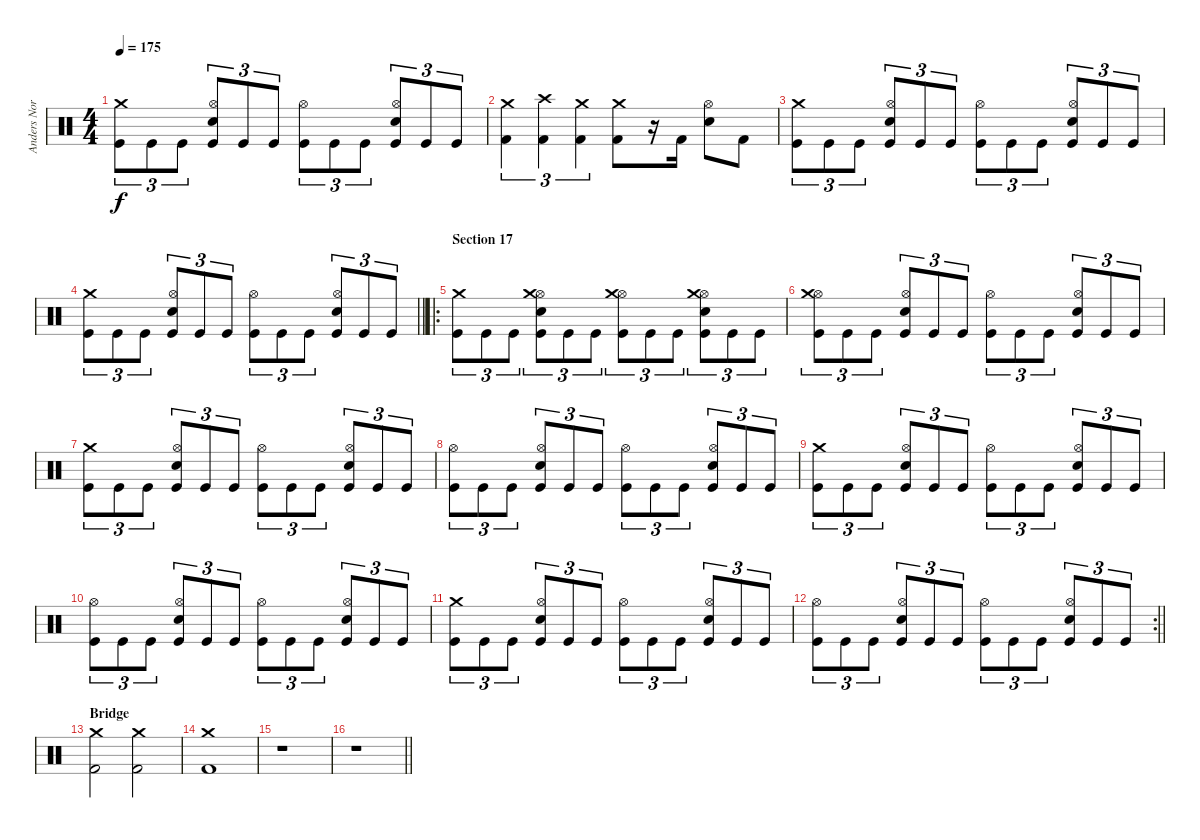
\track ("Anders Nordin" "Anders Nor") {instrument percussion}
\staff {score}
\articulation defaults
\ts (4 4)
\tempo 175
\clef neutral
\ks c
("Crash medium (hit)" "Kick (hit)").8{tu (3 2) dy f} "Kick (hit)".8{tu (3 2)} "Kick (hit)".8{tu (3 2)} ("Hi-Hat (open)" "Electric Snare (hit)" "Kick (hit)").8{tu (3 2)} "Kick (hit)".8{tu (3 2)} "Kick (hit)".8{tu (3 2)} ("Hi-Hat (open)" "Kick (hit)").8{tu (3 2)} "Kick (hit)".8{tu (3 2)} "Kick (hit)".8{tu (3 2)} ("Hi-Hat (open)" "Electric Snare (hit)" "Kick (hit)").8{tu (3 2)} "Kick (hit)".8{tu (3 2)} "Kick (hit)".8{tu (3 2)} |
("Crash medium (hit)" "Kick (hit) 2").4{tu (3 2)} ("Crash high (hit)" "Kick (hit) 2").4{tu (3 2)} ("Crash medium (hit)" "Kick (hit) 2").4{tu (3 2)} ("Crash medium (hit)" "Kick (hit) 2").8 r.16 "Kick (hit) 2".16 ("Snare (hit) 2" "Hi-Hat (open)").8 "Kick (hit) 2".8 |
("Crash medium (hit)" "Kick (hit)").8{tu (3 2)} "Kick (hit)".8{tu (3 2)} "Kick (hit)".8{tu (3 2)} ("Hi-Hat (open)" "Electric Snare (hit)" "Kick (hit)").8{tu (3 2)} "Kick (hit)".8{tu (3 2)} "Kick (hit)".8{tu (3 2)} ("Hi-Hat (open)" "Kick (hit)").8{tu (3 2)} "Kick (hit)".8{tu (3 2)} "Kick (hit)".8{tu (3 2)} ("Hi-Hat (open)" "Electric Snare (hit)" "Kick (hit)").8{tu (3 2)} "Kick (hit)".8{tu (3 2)} "Kick (hit)".8{tu (3 2)} |
\barLineRight lightlight
("Crash medium (hit)" "Kick (hit)").8{tu (3 2)} "Kick (hit)".8{tu (3 2)} "Kick (hit)".8{tu (3 2)} ("Hi-Hat (open)" "Electric Snare (hit)" "Kick (hit)").8{tu (3 2)} "Kick (hit)".8{tu (3 2)} "Kick (hit)".8{tu (3 2)} ("Hi-Hat (open)" "Kick (hit)").8{tu (3 2)} "Kick (hit)".8{tu (3 2)} "Kick (hit)".8{tu (3 2)} ("Hi-Hat (open)" "Electric Snare (hit)" "Kick (hit)").8{tu (3 2)} "Kick (hit)".8{tu (3 2)} "Kick (hit)".8{tu (3 2)} |
\ro
\section ("" "Section 17")
("Crash medium (hit)" "Kick (hit)").8{tu (3 2)} "Kick (hit)".8{tu (3 2)} "Kick (hit)".8{tu (3 2)} ("Hi-Hat (open)" "Crash medium (hit)" "Electric Snare (hit)" "Kick (hit)").8{tu (3 2)} "Kick (hit)".8{tu (3 2)} "Kick (hit)".8{tu (3 2)} ("Hi-Hat (open)" "Crash medium (hit)" "Kick (hit)").8{tu (3 2)} "Kick (hit)".8{tu (3 2)} "Kick (hit)".8{tu (3 2)} ("Hi-Hat (open)" "Crash medium (hit)" "Electric Snare (hit)" "Kick (hit)").8{tu (3 2)} "Kick (hit)".8{tu (3 2)} "Kick (hit)".8{tu (3 2)} |
("Hi-Hat (open)" "Crash medium (hit)" "Kick (hit)").8{tu (3 2)} "Kick (hit)".8{tu (3 2)} "Kick (hit)".8{tu (3 2)} ("Hi-Hat (open)" "Electric Snare (hit)" "Kick (hit)").8{tu (3 2)} "Kick (hit)".8{tu (3 2)} "Kick (hit)".8{tu (3 2)} ("Hi-Hat (open)" "Kick (hit)").8{tu (3 2)} "Kick (hit)".8{tu (3 2)} "Kick (hit)".8{tu (3 2)} ("Hi-Hat (open)" "Electric Snare (hit)" "Kick (hit)").8{tu (3 2)} "Kick (hit)".8{tu (3 2)} "Kick (hit)".8{tu (3 2)} |
("Crash medium (hit)" "Kick (hit)").8{tu (3 2)} "Kick (hit)".8{tu (3 2)} "Kick (hit)".8{tu (3 2)} ("Hi-Hat (open)" "Electric Snare (hit)" "Kick (hit)").8{tu (3 2)} "Kick (hit)".8{tu (3 2)} "Kick (hit)".8{tu (3 2)} ("Hi-Hat (open)" "Kick (hit)").8{tu (3 2)} "Kick (hit)".8{tu (3 2)} "Kick (hit)".8{tu (3 2)} ("Hi-Hat (open)" "Electric Snare (hit)" "Kick (hit)").8{tu (3 2)} "Kick (hit)".8{tu (3 2)} "Kick (hit)".8{tu (3 2)} |
("Hi-Hat (open)" "Kick (hit)").8{tu (3 2)} "Kick (hit)".8{tu (3 2)} "Kick (hit)".8{tu (3 2)} ("Hi-Hat (open)" "Electric Snare (hit)" "Kick (hit)").8{tu (3 2)} "Kick (hit)".8{tu (3 2)} "Kick (hit)".8{tu (3 2)} ("Hi-Hat (open)" "Kick (hit)").8{tu (3 2)} "Kick (hit)".8{tu (3 2)} "Kick (hit)".8{tu (3 2)} ("Hi-Hat (open)" "Electric Snare (hit)" "Kick (hit)").8{tu (3 2)} "Kick (hit)".8{tu (3 2)} "Kick (hit)".8{tu (3 2)} |
("Crash medium (hit)" "Kick (hit)").8{tu (3 2)} "Kick (hit)".8{tu (3 2)} "Kick (hit)".8{tu (3 2)} ("Hi-Hat (open)" "Electric Snare (hit)" "Kick (hit)").8{tu (3 2)} "Kick (hit)".8{tu (3 2)} "Kick (hit)".8{tu (3 2)} ("Hi-Hat (open)" "Kick (hit)").8{tu (3 2)} "Kick (hit)".8{tu (3 2)} "Kick (hit)".8{tu (3 2)} ("Hi-Hat (open)" "Electric Snare (hit)" "Kick (hit)").8{tu (3 2)} "Kick (hit)".8{tu (3 2)} "Kick (hit)".8{tu (3 2)} |
("Hi-Hat (open)" "Kick (hit)").8{tu (3 2)} "Kick (hit)".8{tu (3 2)} "Kick (hit)".8{tu (3 2)} ("Hi-Hat (open)" "Electric Snare (hit)" "Kick (hit)").8{tu (3 2)} "Kick (hit)".8{tu (3 2)} "Kick (hit)".8{tu (3 2)} ("Hi-Hat (open)" "Kick (hit)").8{tu (3 2)} "Kick (hit)".8{tu (3 2)} "Kick (hit)".8{tu (3 2)} ("Hi-Hat (open)" "Electric Snare (hit)" "Kick (hit)").8{tu (3 2)} "Kick (hit)".8{tu (3 2)} "Kick (hit)".8{tu (3 2)} |
("Crash medium (hit)" "Kick (hit)").8{tu (3 2)} "Kick (hit)".8{tu (3 2)} "Kick (hit)".8{tu (3 2)} ("Hi-Hat (open)" "Electric Snare (hit)" "Kick (hit)").8{tu (3 2)} "Kick (hit)".8{tu (3 2)} "Kick (hit)".8{tu (3 2)} ("Hi-Hat (open)" "Kick (hit)").8{tu (3 2)} "Kick (hit)".8{tu (3 2)} "Kick (hit)".8{tu (3 2)} ("Hi-Hat (open)" "Electric Snare (hit)" "Kick (hit)").8{tu (3 2)} "Kick (hit)".8{tu (3 2)} "Kick (hit)".8{tu (3 2)} |
\rc 2
\barLineRight lightlight
("Hi-Hat (open)" "Kick (hit)").8{tu (3 2)} "Kick (hit)".8{tu (3 2)} "Kick (hit)".8{tu (3 2)} ("Hi-Hat (open)" "Electric Snare (hit)" "Kick (hit)").8{tu (3 2)} "Kick (hit)".8{tu (3 2)} "Kick (hit)".8{tu (3 2)} ("Hi-Hat (open)" "Kick (hit)").8{tu (3 2)} "Kick (hit)".8{tu (3 2)} "Kick (hit)".8{tu (3 2)} ("Hi-Hat (open)" "Electric Snare (hit)" "Kick (hit)").8{tu (3 2)} "Kick (hit)".8{tu (3 2)} "Kick (hit)".8{tu (3 2)} |
\section ("" "Bridge")
("Crash medium (hit)" "Kick (hit) 2").2 ("Crash medium (hit)" "Kick (hit) 2").2 |
("Crash medium (hit)" "Kick (hit) 2").1 |
r.1 |
\barLineRight lightlight
r.1
